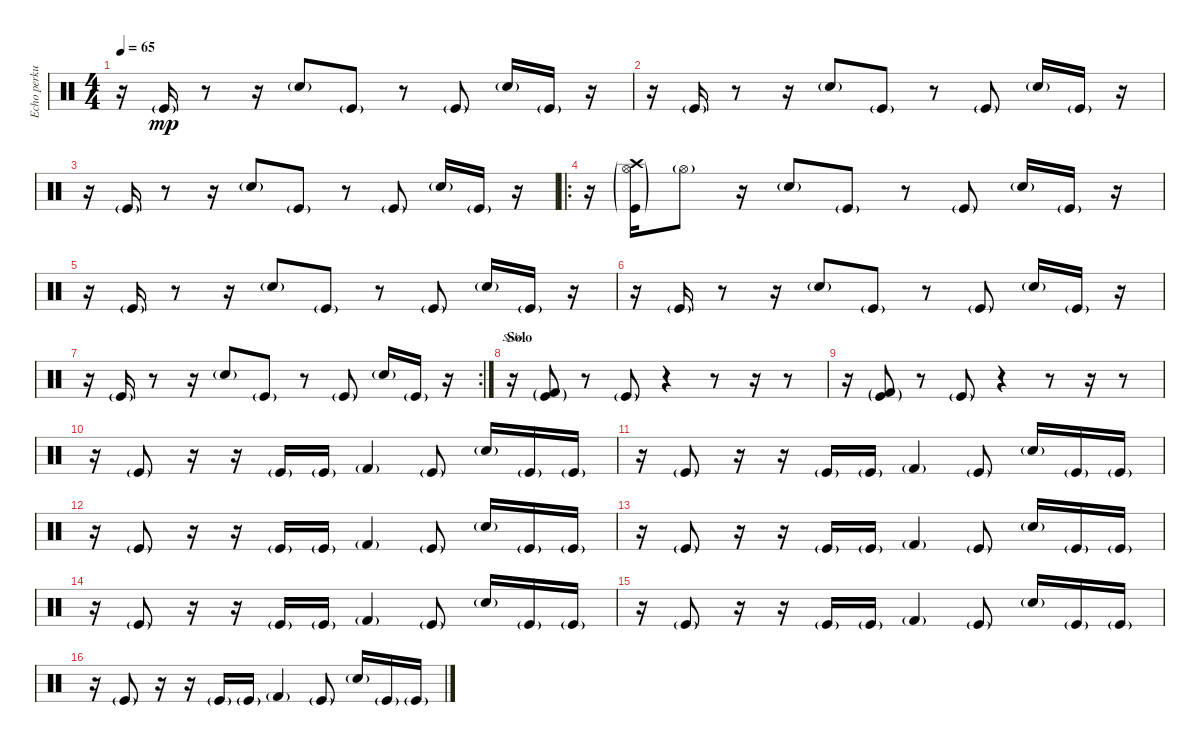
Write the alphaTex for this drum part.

\track ("Echo perkusji 1" "Echo perku") {instrument percussion}
\staff {score}
\articulation defaults
\chord ("Solo") {firstfret 13}
\ts (4 4)
\tempo 65
\clef neutral
\ks c
r.16{dy mp} "Kick (hit)"{g}.16 r.8 r.16 "Snare (hit) 2"{g}.8 "Kick (hit)"{g}.8 r.8 "Kick (hit)"{g}.8 "Snare (hit) 2"{g}.16 "Kick (hit)"{g}.16 r.16 |
r.16 "Kick (hit)"{g}.16 r.8 r.16 "Snare (hit) 2"{g}.8 "Kick (hit)"{g}.8 r.8 "Kick (hit)"{g}.8 "Snare (hit) 2"{g}.16 "Kick (hit)"{g}.16 r.16 |
r.16 "Kick (hit)"{g}.16 r.8 r.16 "Snare (hit) 2"{g}.8 "Kick (hit)"{g}.8 r.8 "Kick (hit)"{g}.8 "Snare (hit) 2"{g}.16 "Kick (hit)"{g}.16 r.16 |
\ro
r.16 ("Kick (hit)"{g} "Hi-Hat (open)"{g} "Crash high (hit)"{g}).16 "Hi-Hat (open)"{g}.8 r.16 "Snare (hit) 2"{g}.8 "Kick (hit)"{g}.8 r.8 "Kick (hit)"{g}.8 "Snare (hit) 2"{g}.16 "Kick (hit)"{g}.16 r.16 |
r.16 "Kick (hit)"{g}.16 r.8 r.16 "Snare (hit) 2"{g}.8 "Kick (hit)"{g}.8 r.8 "Kick (hit)"{g}.8 "Snare (hit) 2"{g}.16 "Kick (hit)"{g}.16 r.16 |
r.16 "Kick (hit)"{g}.16 r.8 r.16 "Snare (hit) 2"{g}.8 "Kick (hit)"{g}.8 r.8 "Kick (hit)"{g}.8 "Snare (hit) 2"{g}.16 "Kick (hit)"{g}.16 r.16 |
\rc 2
r.16 "Kick (hit)"{g}.16 r.8 r.16 "Snare (hit) 2"{g}.8 "Kick (hit)"{g}.8 r.8 "Kick (hit)"{g}.8 "Snare (hit) 2"{g}.16 "Kick (hit)"{g}.16 r.16 |
\section ("" "Solo")
r.16{ch "Solo" volume 16} ("Kick (hit)"{g} "Kick (hit) 2"{g}).8 r.8 "Kick (hit)"{g}.8 r.4 r.8 r.16 r.8 |
r.16 ("Kick (hit)"{g} "Kick (hit) 2"{g}).8 r.8 "Kick (hit)"{g}.8 r.4 r.8 r.16 r.8 |
r.16 "Kick (hit)"{g}.8 r.16 r.16 "Kick (hit)"{g}.16 "Kick (hit)"{g}.16 "Kick (hit) 2"{g}.4 "Kick (hit)"{g}.8 "Snare (hit) 2"{g}.16 "Kick (hit)"{g}.16 "Kick (hit)"{g}.16 |
r.16 "Kick (hit)"{g}.8 r.16 r.16 "Kick (hit)"{g}.16 "Kick (hit)"{g}.16 "Kick (hit) 2"{g}.4 "Kick (hit)"{g}.8 "Snare (hit) 2"{g}.16 "Kick (hit)"{g}.16 "Kick (hit)"{g}.16 |
r.16 "Kick (hit)"{g}.8 r.16 r.16 "Kick (hit)"{g}.16 "Kick (hit)"{g}.16 "Kick (hit) 2"{g}.4 "Kick (hit)"{g}.8 "Snare (hit) 2"{g}.16 "Kick (hit)"{g}.16 "Kick (hit)"{g}.16 |
r.16 "Kick (hit)"{g}.8 r.16 r.16 "Kick (hit)"{g}.16 "Kick (hit)"{g}.16 "Kick (hit) 2"{g}.4 "Kick (hit)"{g}.8 "Snare (hit) 2"{g}.16 "Kick (hit)"{g}.16 "Kick (hit)"{g}.16 |
r.16 "Kick (hit)"{g}.8 r.16 r.16 "Kick (hit)"{g}.16 "Kick (hit)"{g}.16 "Kick (hit) 2"{g}.4 "Kick (hit)"{g}.8 "Snare (hit) 2"{g}.16 "Kick (hit)"{g}.16 "Kick (hit)"{g}.16 |
r.16 "Kick (hit)"{g}.8 r.16 r.16 "Kick (hit)"{g}.16 "Kick (hit)"{g}.16 "Kick (hit) 2"{g}.4 "Kick (hit)"{g}.8 "Snare (hit) 2"{g}.16 "Kick (hit)"{g}.16 "Kick (hit)"{g}.16 |
r.16 "Kick (hit)"{g}.8 r.16 r.16 "Kick (hit)"{g}.16 "Kick (hit)"{g}.16 "Kick (hit) 2"{g}.4 "Kick (hit)"{g}.8 "Snare (hit) 2"{g}.16 "Kick (hit)"{g}.16 "Kick (hit)"{g}.16
